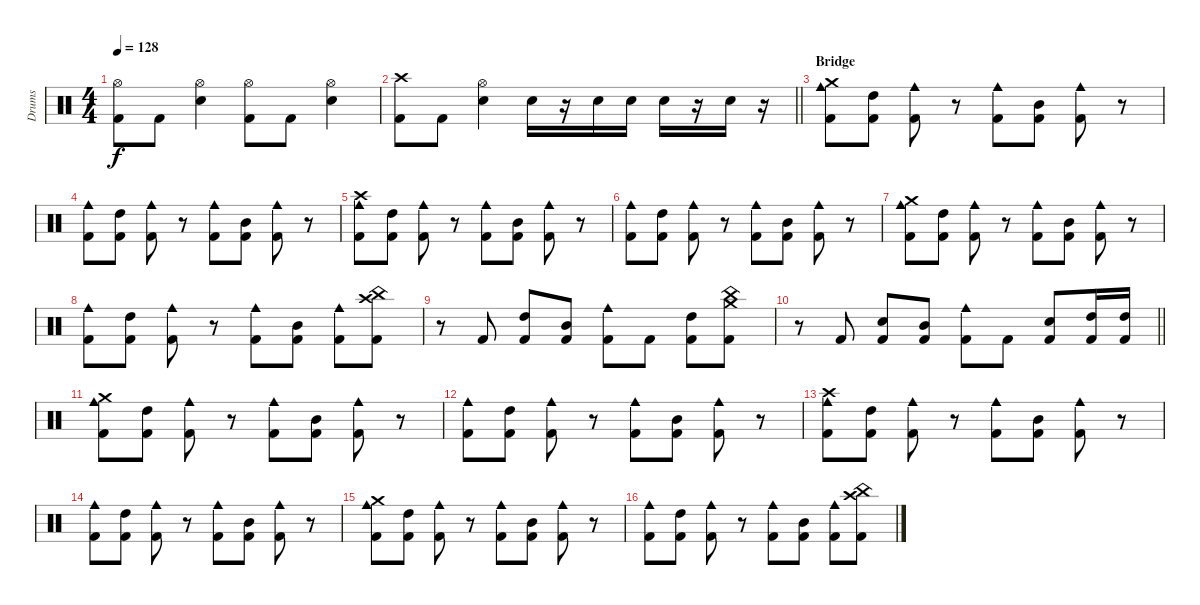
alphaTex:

\track ("Drums" "Drums") {instrument percussion}
\staff {score}
\articulation defaults
\ts (4 4)
\tempo 128
\clef neutral
\ks c
("Hi-Hat (open)"{t} "Kick (hit) 2"{t}).8{dy f} "Kick (hit) 2".8 ("Hi-Hat (open)" "Electric Snare (hit)").4 ("Hi-Hat (open)" "Kick (hit) 2").8 "Kick (hit) 2".8 ("Hi-Hat (open)" "Electric Snare (hit)").4 |
\barLineRight lightlight
("Crash high (hit)" "Kick (hit) 2").8 "Kick (hit) 2".8 ("Hi-Hat (open)" "Electric Snare (hit)").4 "Electric Snare (hit)".16 r.16 "Electric Snare (hit)".16 "Electric Snare (hit)".16 "Electric Snare (hit)".16 r.16 "Electric Snare (hit)".16 r.16 |
\section ("" "Bridge")
("Crash medium (hit)" "Cowbell medium (hit)" "Kick (hit) 2").8 ("High Tom (hit)" "Kick (hit) 2").8 ("Cowbell medium (hit)" "Kick (hit) 2").8 r.8 ("Cowbell medium (hit)" "Kick (hit) 2").8 ("Mid Tom (hit)" "Kick (hit) 2").8 ("Cowbell medium (hit)" "Kick (hit) 2").8 r.8 |
("Cowbell medium (hit)" "Kick (hit) 2").8 ("High Tom (hit)" "Kick (hit) 2").8 ("Cowbell medium (hit)" "Kick (hit) 2").8 r.8 ("Cowbell medium (hit)" "Kick (hit) 2").8 ("Mid Tom (hit)" "Kick (hit) 2").8 ("Cowbell medium (hit)" "Kick (hit) 2").8 r.8 |
("Crash high (hit)" "Cowbell medium (hit)" "Kick (hit) 2").8 ("High Tom (hit)" "Kick (hit) 2").8 ("Cowbell medium (hit)" "Kick (hit) 2").8 r.8 ("Cowbell medium (hit)" "Kick (hit) 2").8 ("Mid Tom (hit)" "Kick (hit) 2").8 ("Cowbell medium (hit)" "Kick (hit) 2").8 r.8 |
("Cowbell medium (hit)" "Kick (hit) 2").8 ("High Tom (hit)" "Kick (hit) 2").8 ("Cowbell medium (hit)" "Kick (hit) 2").8 r.8 ("Cowbell medium (hit)" "Kick (hit) 2").8 ("Mid Tom (hit)" "Kick (hit) 2").8 ("Cowbell medium (hit)" "Kick (hit) 2").8 r.8 |
("Crash medium (hit)" "Cowbell medium (hit)" "Kick (hit) 2").8 ("High Tom (hit)" "Kick (hit) 2").8 ("Cowbell medium (hit)" "Kick (hit) 2").8 r.8 ("Cowbell medium (hit)" "Kick (hit) 2").8 ("Mid Tom (hit)" "Kick (hit) 2").8 ("Cowbell medium (hit)" "Kick (hit) 2").8 r.8 |
("Cowbell medium (hit)" "Kick (hit) 2").8 ("High Tom (hit)" "Kick (hit) 2").8 ("Cowbell medium (hit)" "Kick (hit) 2").8 r.8 ("Cowbell medium (hit)" "Kick (hit) 2").8 ("Mid Tom (hit)" "Kick (hit) 2").8 ("Cowbell medium (hit)" "Kick (hit) 2").8 ("China (hit)" "Crash high (hit)" "Kick (hit) 2").8 |
r.8 "Kick (hit) 2".8 ("High Tom (hit)" "Kick (hit) 2").8 ("Mid Tom (hit)" "Kick (hit) 2").8 ("Cowbell medium (hit)" "Kick (hit) 2").8 "Kick (hit) 2".8 ("High Tom (hit)" "Kick (hit) 2").8 ("China (hit)" "Crash medium (hit)" "Kick (hit) 2").8 |
\barLineRight lightlight
r.8 "Kick (hit) 2".8 ("Electric Snare (hit)" "Kick (hit) 2").8 ("Mid Tom (hit)" "Kick (hit) 2").8 ("Cowbell medium (hit)" "Kick (hit) 2").8 "Kick (hit) 2".8 ("Electric Snare (hit)" "Kick (hit) 2").8 ("High Tom (hit)" "Kick (hit) 2").16 ("High Tom (hit)" "Kick (hit) 2").16 |
("Crash medium (hit)" "Cowbell medium (hit)" "Kick (hit) 2").8 ("High Tom (hit)" "Kick (hit) 2").8 ("Cowbell medium (hit)" "Kick (hit) 2").8 r.8 ("Cowbell medium (hit)" "Kick (hit) 2").8 ("Mid Tom (hit)" "Kick (hit) 2").8 ("Cowbell medium (hit)" "Kick (hit) 2").8 r.8 |
("Cowbell medium (hit)" "Kick (hit) 2").8 ("High Tom (hit)" "Kick (hit) 2").8 ("Cowbell medium (hit)" "Kick (hit) 2").8 r.8 ("Cowbell medium (hit)" "Kick (hit) 2").8 ("Mid Tom (hit)" "Kick (hit) 2").8 ("Cowbell medium (hit)" "Kick (hit) 2").8 r.8 |
("Crash high (hit)" "Cowbell medium (hit)" "Kick (hit) 2").8 ("High Tom (hit)" "Kick (hit) 2").8 ("Cowbell medium (hit)" "Kick (hit) 2").8 r.8 ("Cowbell medium (hit)" "Kick (hit) 2").8 ("Mid Tom (hit)" "Kick (hit) 2").8 ("Cowbell medium (hit)" "Kick (hit) 2").8 r.8 |
("Cowbell medium (hit)" "Kick (hit) 2").8 ("High Tom (hit)" "Kick (hit) 2").8 ("Cowbell medium (hit)" "Kick (hit) 2").8 r.8 ("Cowbell medium (hit)" "Kick (hit) 2").8 ("Mid Tom (hit)" "Kick (hit) 2").8 ("Cowbell medium (hit)" "Kick (hit) 2").8 r.8 |
("Crash medium (hit)" "Cowbell medium (hit)" "Kick (hit) 2").8 ("High Tom (hit)" "Kick (hit) 2").8 ("Cowbell medium (hit)" "Kick (hit) 2").8 r.8 ("Cowbell medium (hit)" "Kick (hit) 2").8 ("Mid Tom (hit)" "Kick (hit) 2").8 ("Cowbell medium (hit)" "Kick (hit) 2").8 r.8 |
("Cowbell medium (hit)" "Kick (hit) 2").8 ("High Tom (hit)" "Kick (hit) 2").8 ("Cowbell medium (hit)" "Kick (hit) 2").8 r.8 ("Cowbell medium (hit)" "Kick (hit) 2").8 ("Mid Tom (hit)" "Kick (hit) 2").8 ("Cowbell medium (hit)" "Kick (hit) 2").8 ("China (hit)" "Crash high (hit)" "Kick (hit) 2").8
